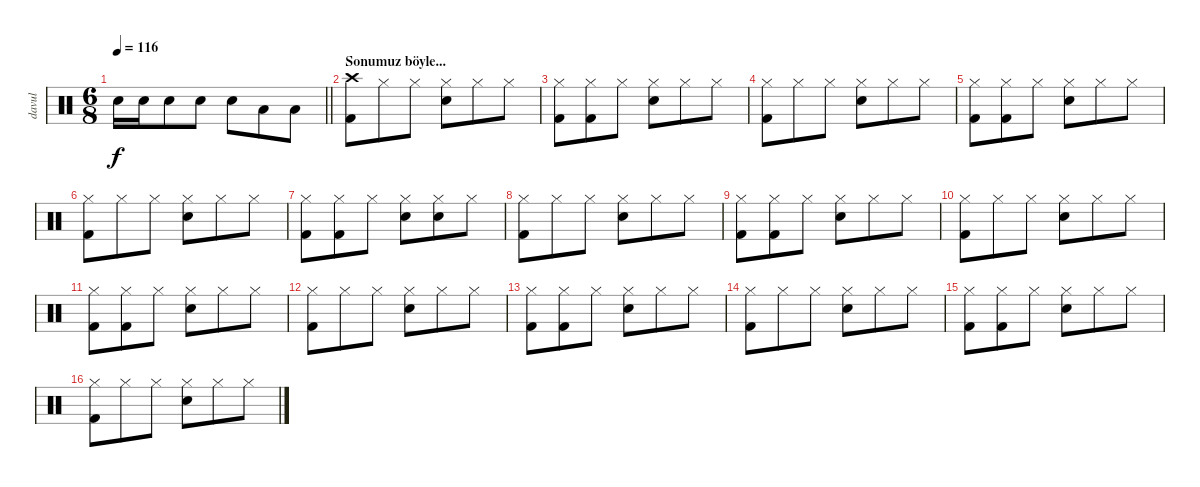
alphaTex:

\track ("davul" "davul") {instrument percussion}
\staff {score}
\articulation defaults
\ts (6 8)
\tempo 116
\clef neutral
\barLineRight lightlight
\ks c "Electric Snare (hit)".16{dy f} "Electric Snare (hit)".16 "Electric Snare (hit)".8 "Electric Snare (hit)".8 "Electric Snare (hit)".8 "Low Tom (hit)".8 "Low Tom (hit)".8
|
\section ("" "Sonumuz böyle...")
("Crash high (hit)" "Kick (hit) 2").8 "Hi-Hat (closed)".8 "Hi-Hat (closed)".8 ("Hi-Hat (closed)" "Electric Snare (hit)").8 "Hi-Hat (closed)".8 "Hi-Hat (closed)".8 |
("Hi-Hat (closed)" "Kick (hit) 2").8 ("Hi-Hat (closed)" "Kick (hit) 2").8 "Hi-Hat (closed)".8 ("Hi-Hat (closed)" "Electric Snare (hit)").8 "Hi-Hat (closed)".8 "Hi-Hat (closed)".8 |
("Hi-Hat (closed)" "Kick (hit) 2").8 "Hi-Hat (closed)".8 "Hi-Hat (closed)".8 ("Hi-Hat (closed)" "Electric Snare (hit)").8 "Hi-Hat (closed)".8 "Hi-Hat (closed)".8 |
("Hi-Hat (closed)" "Kick (hit) 2").8 ("Hi-Hat (closed)" "Kick (hit) 2").8 "Hi-Hat (closed)".8 ("Hi-Hat (closed)" "Electric Snare (hit)").8 "Hi-Hat (closed)".8 "Hi-Hat (closed)".8 |
("Hi-Hat (closed)" "Kick (hit) 2").8 "Hi-Hat (closed)".8 "Hi-Hat (closed)".8 ("Hi-Hat (closed)" "Electric Snare (hit)").8 "Hi-Hat (closed)".8 "Hi-Hat (closed)".8 |
("Hi-Hat (closed)" "Kick (hit) 2").8 ("Hi-Hat (closed)" "Kick (hit) 2").8 "Hi-Hat (closed)".8 ("Hi-Hat (closed)" "Electric Snare (hit)").8 ("Hi-Hat (closed)" "Snare (hit)").8 "Hi-Hat (closed)".8 |
("Hi-Hat (closed)" "Kick (hit) 2").8 "Hi-Hat (closed)".8 "Hi-Hat (closed)".8 ("Hi-Hat (closed)" "Electric Snare (hit)").8 "Hi-Hat (closed)".8 "Hi-Hat (closed)".8 |
("Hi-Hat (closed)" "Kick (hit) 2").8 ("Hi-Hat (closed)" "Kick (hit) 2").8 "Hi-Hat (closed)".8 ("Hi-Hat (closed)" "Electric Snare (hit)").8 "Hi-Hat (closed)".8 "Hi-Hat (closed)".8 |
("Hi-Hat (closed)" "Kick (hit) 2").8 "Hi-Hat (closed)".8 "Hi-Hat (closed)".8 ("Hi-Hat (closed)" "Electric Snare (hit)").8 "Hi-Hat (closed)".8 "Hi-Hat (closed)".8 |
("Hi-Hat (closed)" "Kick (hit) 2").8 ("Hi-Hat (closed)" "Kick (hit) 2").8 "Hi-Hat (closed)".8 ("Hi-Hat (closed)" "Electric Snare (hit)").8 "Hi-Hat (closed)".8 "Hi-Hat (closed)".8 |
("Hi-Hat (closed)" "Kick (hit) 2").8 "Hi-Hat (closed)".8 "Hi-Hat (closed)".8 ("Hi-Hat (closed)" "Electric Snare (hit)").8 "Hi-Hat (closed)".8 "Hi-Hat (closed)".8 |
("Hi-Hat (closed)" "Kick (hit) 2").8 ("Hi-Hat (closed)" "Kick (hit) 2").8 "Hi-Hat (closed)".8 ("Hi-Hat (closed)" "Electric Snare (hit)").8 "Hi-Hat (closed)".8 "Hi-Hat (closed)".8 |
("Hi-Hat (closed)" "Kick (hit) 2").8 "Hi-Hat (closed)".8 "Hi-Hat (closed)".8 ("Hi-Hat (closed)" "Electric Snare (hit)").8 "Hi-Hat (closed)".8 "Hi-Hat (closed)".8 |
("Hi-Hat (closed)" "Kick (hit) 2").8 ("Hi-Hat (closed)" "Kick (hit) 2").8 "Hi-Hat (closed)".8 ("Hi-Hat (closed)" "Electric Snare (hit)").8 "Hi-Hat (closed)".8 "Hi-Hat (closed)".8 |
("Hi-Hat (closed)" "Kick (hit) 2").8 "Hi-Hat (closed)".8 "Hi-Hat (closed)".8 ("Hi-Hat (closed)" "Electric Snare (hit)").8 "Hi-Hat (closed)".8 "Hi-Hat (closed)".8
